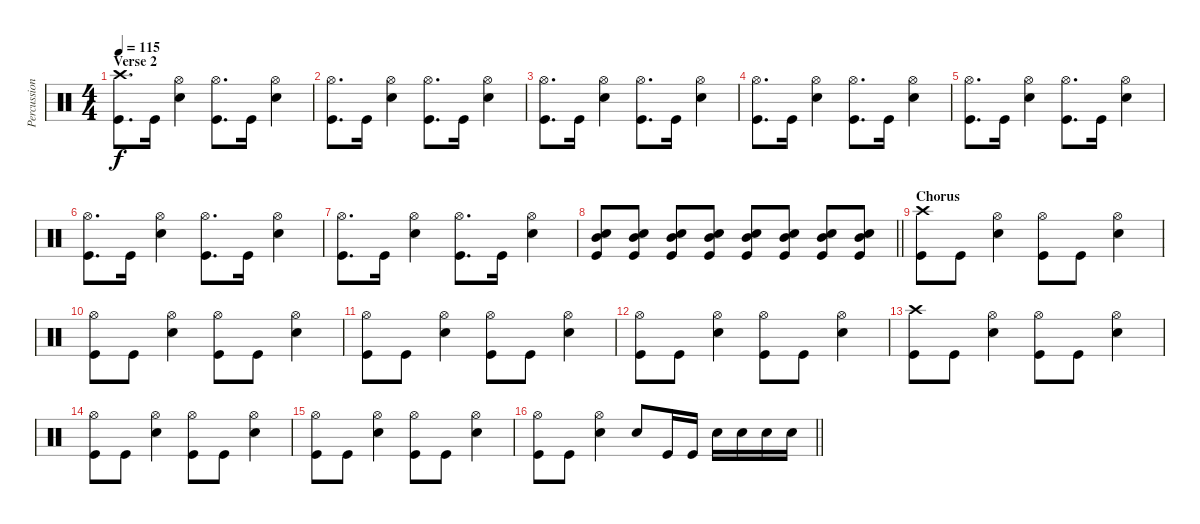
\track ("Percussion" "Percussion") {instrument percussion}
\staff {score}
\articulation defaults
\ts (4 4)
\section ("" "Verse 2")
\tempo 115
\clef neutral
\ks c
("Crash high (hit)" "Kick (hit)").8{d dy f} "Kick (hit)".16 ("Hi-Hat (open)" "Electric Snare (hit)").4 ("Hi-Hat (open)" "Kick (hit)").8{d} "Kick (hit)".16 ("Hi-Hat (open)" "Electric Snare (hit)").4 |
("Hi-Hat (open)" "Kick (hit)").8{d} "Kick (hit)".16 ("Hi-Hat (open)" "Electric Snare (hit)").4 ("Hi-Hat (open)" "Kick (hit)").8{d} "Kick (hit)".16 ("Hi-Hat (open)" "Electric Snare (hit)").4 |
("Hi-Hat (open)" "Kick (hit)").8{d} "Kick (hit)".16 ("Hi-Hat (open)" "Electric Snare (hit)").4 ("Hi-Hat (open)" "Kick (hit)").8{d} "Kick (hit)".16 ("Hi-Hat (open)" "Electric Snare (hit)").4 |
("Hi-Hat (open)" "Kick (hit)").8{d} "Kick (hit)".16 ("Hi-Hat (open)" "Electric Snare (hit)").4 ("Hi-Hat (open)" "Kick (hit)").8{d} "Kick (hit)".16 ("Hi-Hat (open)" "Electric Snare (hit)").4 |
("Hi-Hat (open)" "Kick (hit)").8{d} "Kick (hit)".16 ("Hi-Hat (open)" "Electric Snare (hit)").4 ("Hi-Hat (open)" "Kick (hit)").8{d} "Kick (hit)".16 ("Hi-Hat (open)" "Electric Snare (hit)").4 |
("Hi-Hat (open)" "Kick (hit)").8{d} "Kick (hit)".16 ("Hi-Hat (open)" "Electric Snare (hit)").4 ("Hi-Hat (open)" "Kick (hit)").8{d} "Kick (hit)".16 ("Hi-Hat (open)" "Electric Snare (hit)").4 |
("Hi-Hat (open)" "Kick (hit)").8{d} "Kick (hit)".16 ("Hi-Hat (open)" "Electric Snare (hit)").4 ("Hi-Hat (open)" "Kick (hit)").8{d} "Kick (hit)".16 ("Hi-Hat (open)" "Electric Snare (hit)").4{volume 8} |
\barLineRight lightlight
("Mid Tom (hit)" "Electric Snare (hit)" "Kick (hit)").8{volume 13} ("Mid Tom (hit)" "Electric Snare (hit)" "Kick (hit)").8 ("Mid Tom (hit)" "Electric Snare (hit)" "Kick (hit)").8 ("Mid Tom (hit)" "Electric Snare (hit)" "Kick (hit)").8 ("Mid Tom (hit)" "Electric Snare (hit)" "Kick (hit)").8 ("Mid Tom (hit)" "Electric Snare (hit)" "Kick (hit)").8 ("Mid Tom (hit)" "Electric Snare (hit)" "Kick (hit)").8 ("Mid Tom (hit)" "Electric Snare (hit)" "Kick (hit)").8 |
\section ("" "Chorus")
("Crash high (hit)" "Kick (hit)").8 "Kick (hit)".8 ("Hi-Hat (open)" "Electric Snare (hit)").4 ("Hi-Hat (open)" "Kick (hit)").8 "Kick (hit)".8 ("Hi-Hat (open)" "Electric Snare (hit)").4 |
("Hi-Hat (open)" "Kick (hit)").8 "Kick (hit)".8 ("Hi-Hat (open)" "Electric Snare (hit)").4 ("Hi-Hat (open)" "Kick (hit)").8 "Kick (hit)".8 ("Hi-Hat (open)" "Electric Snare (hit)").4 |
("Hi-Hat (open)" "Kick (hit)").8 "Kick (hit)".8 ("Hi-Hat (open)" "Electric Snare (hit)").4 ("Hi-Hat (open)" "Kick (hit)").8 "Kick (hit)".8 ("Hi-Hat (open)" "Electric Snare (hit)").4 |
("Hi-Hat (open)" "Kick (hit)").8 "Kick (hit)".8 ("Hi-Hat (open)" "Electric Snare (hit)").4 ("Hi-Hat (open)" "Kick (hit)").8 "Kick (hit)".8 ("Hi-Hat (open)" "Electric Snare (hit)").4 |
("Crash high (hit)" "Kick (hit)").8 "Kick (hit)".8 ("Hi-Hat (open)" "Electric Snare (hit)").4 ("Hi-Hat (open)" "Kick (hit)").8 "Kick (hit)".8 ("Hi-Hat (open)" "Electric Snare (hit)").4 |
("Hi-Hat (open)" "Kick (hit)").8 "Kick (hit)".8 ("Hi-Hat (open)" "Electric Snare (hit)").4 ("Hi-Hat (open)" "Kick (hit)").8 "Kick (hit)".8 ("Hi-Hat (open)" "Electric Snare (hit)").4 |
("Hi-Hat (open)" "Kick (hit)").8 "Kick (hit)".8 ("Hi-Hat (open)" "Electric Snare (hit)").4 ("Hi-Hat (open)" "Kick (hit)").8 "Kick (hit)".8 ("Hi-Hat (open)" "Electric Snare (hit)").4 |
\barLineRight lightlight
("Hi-Hat (open)" "Kick (hit)").8 "Kick (hit)".8 ("Hi-Hat (open)" "Electric Snare (hit)").4 "Electric Snare (hit)".8 "Kick (hit)".16 "Kick (hit)".16 "Electric Snare (hit)".16 "Electric Snare (hit)".16 "Electric Snare (hit)".16 "Electric Snare (hit)".16
